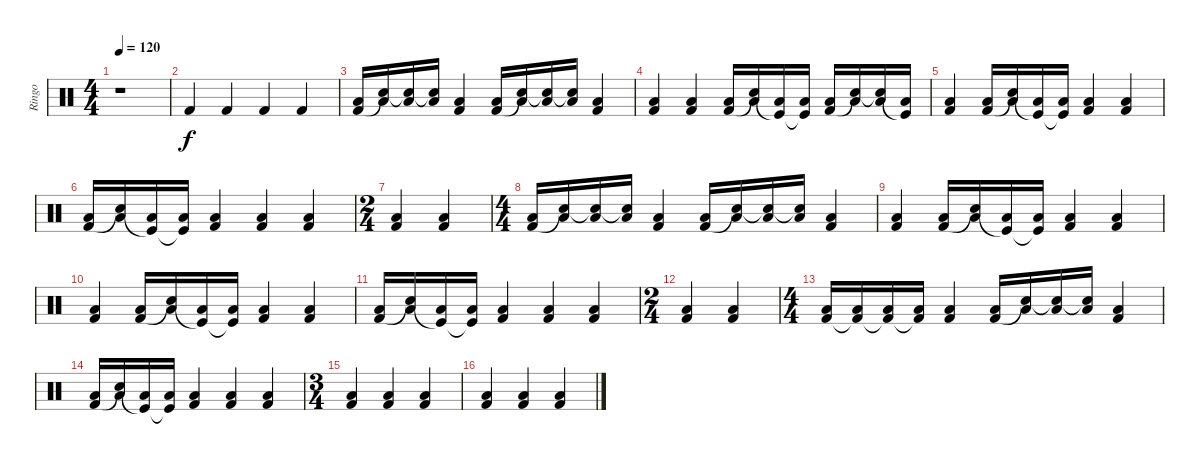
\track ("Ringo" "Ringo") {instrument percussion}
\staff {score}
\articulation defaults
\ts (4 4)
\tempo 120
\clef neutral
\ks c
r.1{dy f} |
"Kick (hit) 2".4{volume 16} "Kick (hit) 2".4 "Kick (hit) 2".4 "Kick (hit) 2".4 |
("Low Floor Tom (hit)" "Kick (hit) 2").16 ("Low Floor Tom (hit)" "Snare (hit)"{t}).16 ("Low Floor Tom (hit)" "Snare (hit)"{t}).16 ("Low Floor Tom (hit)" "Snare (hit)"{t}).16 ("Low Floor Tom (hit)" "Kick (hit) 2").4 ("Low Floor Tom (hit)" "Kick (hit) 2").16 ("Low Floor Tom (hit)" "Snare (hit)"{t}).16 ("Low Floor Tom (hit)" "Snare (hit)"{t}).16 ("Low Floor Tom (hit)" "Snare (hit)"{t}).16 ("Low Floor Tom (hit)" "Kick (hit) 2").4 |
("Low Floor Tom (hit)" "Kick (hit) 2").4 ("Low Floor Tom (hit)" "Kick (hit) 2").4 ("Low Floor Tom (hit)" "Kick (hit) 2").16 ("Low Floor Tom (hit)" "Snare (hit)"{t}).16 ("Low Floor Tom (hit)" "Kick (hit)"{t}).16 ("Low Floor Tom (hit)" "Kick (hit)"{t}).16 ("Low Floor Tom (hit)" "Kick (hit) 2").16 ("Low Floor Tom (hit)" "Snare (hit)"{t}).16 ("Low Floor Tom (hit)" "Snare (hit)"{t}).16 ("Low Floor Tom (hit)" "Kick (hit)"{t}).16 |
("Low Floor Tom (hit)" "Kick (hit) 2").4 ("Low Floor Tom (hit)" "Kick (hit) 2").16 ("Low Floor Tom (hit)" "Snare (hit)"{t}).16 ("Low Floor Tom (hit)" "Kick (hit)"{t}).16 ("Low Floor Tom (hit)" "Kick (hit)"{t}).16 ("Low Floor Tom (hit)" "Kick (hit) 2").4 ("Low Floor Tom (hit)" "Kick (hit) 2").4 |
("Low Floor Tom (hit)" "Kick (hit) 2").16 ("Low Floor Tom (hit)" "Snare (hit)"{t}).16 ("Low Floor Tom (hit)" "Kick (hit)"{t}).16 ("Low Floor Tom (hit)" "Kick (hit)"{t}).16 ("Low Floor Tom (hit)" "Kick (hit) 2").4 ("Low Floor Tom (hit)" "Kick (hit) 2").4 ("Low Floor Tom (hit)" "Kick (hit) 2").4 |
\ts (2 4)
("Low Floor Tom (hit)" "Kick (hit) 2").4 ("Low Floor Tom (hit)" "Kick (hit) 2").4 |
\ts (4 4)
("Low Floor Tom (hit)" "Kick (hit) 2").16 ("Low Floor Tom (hit)" "Snare (hit)"{t}).16 ("Low Floor Tom (hit)" "Snare (hit)"{t}).16 ("Low Floor Tom (hit)" "Snare (hit)"{t}).16 ("Low Floor Tom (hit)" "Kick (hit) 2").4 ("Low Floor Tom (hit)" "Kick (hit) 2").16 ("Low Floor Tom (hit)" "Snare (hit)"{t}).16 ("Low Floor Tom (hit)" "Snare (hit)"{t}).16 ("Low Floor Tom (hit)" "Snare (hit)"{t}).16 ("Low Floor Tom (hit)" "Kick (hit) 2").4 |
("Low Floor Tom (hit)" "Kick (hit) 2").4 ("Low Floor Tom (hit)" "Kick (hit) 2").16 ("Low Floor Tom (hit)" "Snare (hit)"{t}).16 ("Low Floor Tom (hit)" "Kick (hit)"{t}).16 ("Low Floor Tom (hit)" "Kick (hit)"{t}).16 ("Low Floor Tom (hit)" "Kick (hit) 2").4 ("Low Floor Tom (hit)" "Kick (hit) 2").4 |
("Low Floor Tom (hit)" "Kick (hit) 2").4 ("Low Floor Tom (hit)" "Kick (hit) 2").16 ("Low Floor Tom (hit)" "Snare (hit)"{t}).16 ("Low Floor Tom (hit)" "Kick (hit)"{t}).16 ("Low Floor Tom (hit)" "Kick (hit)"{t}).16 ("Low Floor Tom (hit)" "Kick (hit) 2").4 ("Low Floor Tom (hit)" "Kick (hit) 2").4 |
("Low Floor Tom (hit)" "Kick (hit) 2").16 ("Low Floor Tom (hit)" "Snare (hit)"{t}).16 ("Low Floor Tom (hit)" "Kick (hit)"{t}).16 ("Low Floor Tom (hit)" "Kick (hit)"{t}).16 ("Low Floor Tom (hit)" "Kick (hit) 2").4 ("Low Floor Tom (hit)" "Kick (hit) 2").4 ("Low Floor Tom (hit)" "Kick (hit) 2").4 |
\ts (2 4)
("Low Floor Tom (hit)" "Kick (hit) 2").4 ("Low Floor Tom (hit)" "Kick (hit) 2").4 |
\ts (4 4)
("Low Floor Tom (hit)" "Kick (hit) 2").16 ("Low Floor Tom (hit)" "Kick (hit) 2"{t}).16 ("Low Floor Tom (hit)" "Kick (hit) 2"{t}).16 ("Low Floor Tom (hit)" "Kick (hit) 2"{t}).16 ("Low Floor Tom (hit)" "Kick (hit) 2").4 ("Low Floor Tom (hit)" "Kick (hit) 2").16 ("Low Floor Tom (hit)" "Snare (hit)"{t}).16 ("Low Floor Tom (hit)" "Snare (hit)"{t}).16 ("Low Floor Tom (hit)" "Snare (hit)"{t}).16 ("Low Floor Tom (hit)" "Kick (hit) 2").4 |
("Low Floor Tom (hit)" "Kick (hit) 2").16 ("Low Floor Tom (hit)" "Snare (hit)"{t}).16 ("Low Floor Tom (hit)" "Kick (hit)"{t}).16 ("Low Floor Tom (hit)" "Kick (hit)"{t}).16 ("Low Floor Tom (hit)" "Kick (hit) 2").4 ("Low Floor Tom (hit)" "Kick (hit) 2").4 ("Low Floor Tom (hit)" "Kick (hit) 2").4 |
\ts (3 4)
("Low Floor Tom (hit)" "Kick (hit) 2").4 ("Low Floor Tom (hit)" "Kick (hit) 2").4 ("Low Floor Tom (hit)" "Kick (hit) 2").4 |
("Low Floor Tom (hit)" "Kick (hit) 2").4 ("Low Floor Tom (hit)" "Kick (hit) 2").4 ("Low Floor Tom (hit)" "Kick (hit) 2").4
